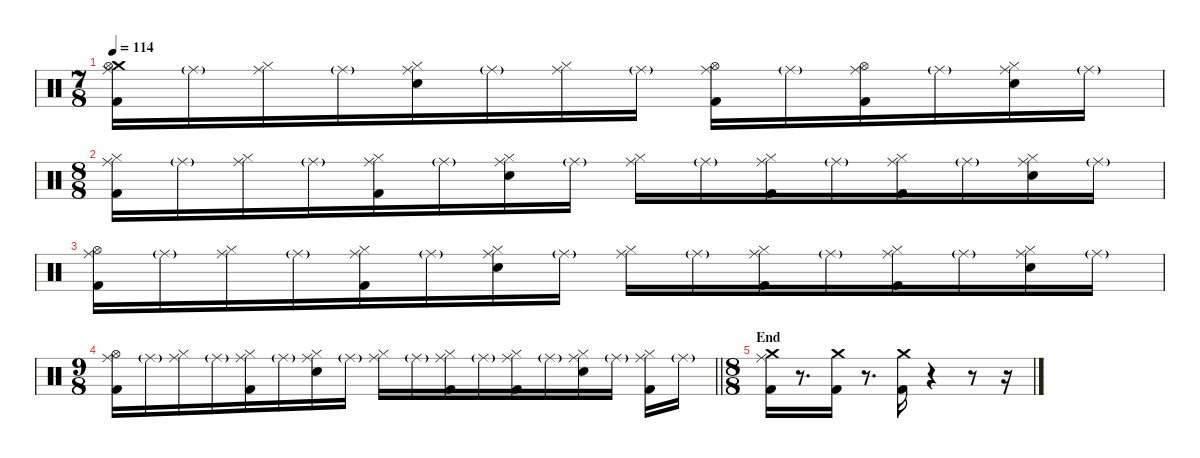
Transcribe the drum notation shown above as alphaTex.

\defaultSystemsLayout 4
\hideDynamics
\bracketExtendMode nobrackets
\singleTrackTrackNamePolicy hidden
\multiTrackTrackNamePolicy hidden
\firstSystemTrackNameMode fullname
\firstSystemTrackNameOrientation horizontal
\otherSystemsTrackNameOrientation horizontal
\track ("Drums" "drm.") {instrument percussion}
\staff {score}
\articulation defaults
\ts (7 8)
\beaming (8 4 4 4 4)
\tempo 114
\clef neutral
\ks c
("Crash medium (hit)" "Ride (middle)" "Hi-Hat (open)" "Kick (hit) 2").16{dy f beam Down} "Ride (middle)"{g}.16{dy mf beam Down} ("Ride (middle)" "Hi-Hat (closed)").16{dy f beam Down} "Ride (middle)"{g}.16{dy mf beam Down} ("Ride (middle)" "Hi-Hat (closed)" "Snare (hit) 2").16{dy f beam Down} "Ride (middle)"{g}.16{dy mf beam Down} ("Ride (middle)" "Hi-Hat (closed)").16{dy f beam Down} "Ride (middle)"{g}.16{dy mf beam Down} ("Ride (middle)" "Hi-Hat (open)" "Kick (hit) 2").16{dy f beam Down} "Ride (middle)"{g}.16{dy mf beam Down} ("Ride (middle)" "Hi-Hat (open)" "Kick (hit) 2").16{dy f beam Down} "Ride (middle)"{g}.16{dy mf beam Down} ("Ride (middle)" "Hi-Hat (closed)" "Snare (hit) 2").16{dy f beam Down} "Ride (middle)"{g}.16{dy mf beam Down} |
\ts (8 8)
\beaming (8 4 4 4 4)
("Ride (middle)" "Hi-Hat (closed)" "Kick (hit) 2").16{dy f beam Down} "Ride (middle)"{g}.16{dy mf beam Down} ("Ride (middle)" "Hi-Hat (closed)").16{dy f beam Down} "Ride (middle)"{g}.16{dy mf beam Down} ("Ride (middle)" "Hi-Hat (closed)" "Kick (hit) 2").16{dy f beam Down} "Ride (middle)"{g}.16{dy mf beam Down} ("Ride (middle)" "Hi-Hat (closed)" "Snare (hit) 2").16{dy f beam Down} "Ride (middle)"{g}.16{dy mf beam Down} ("Ride (middle)" "Hi-Hat (closed)").16{dy f beam Down} "Ride (middle)"{g}.16{dy mf beam Down} ("Ride (middle)" "Hi-Hat (closed)" "Kick (hit) 2").16{dy f beam Down} "Ride (middle)"{g}.16{dy mf beam Down} ("Ride (middle)" "Hi-Hat (closed)" "Kick (hit) 2").16{dy f beam Down} "Ride (middle)"{g}.16{dy mf beam Down} ("Ride (middle)" "Hi-Hat (closed)" "Snare (hit) 2").16{dy f beam Down} "Ride (middle)"{g}.16{dy mf beam Down} |
("Ride (middle)" "Hi-Hat (open)" "Kick (hit) 2").16{dy f beam Down} "Ride (middle)"{g}.16{dy mf beam Down} ("Ride (middle)" "Hi-Hat (closed)").16{dy f beam Down} "Ride (middle)"{g}.16{dy mf beam Down} ("Ride (middle)" "Hi-Hat (closed)" "Kick (hit) 2").16{dy f beam Down} "Ride (middle)"{g}.16{dy mf beam Down} ("Ride (middle)" "Hi-Hat (closed)" "Snare (hit) 2").16{dy f beam Down} "Ride (middle)"{g}.16{dy mf beam Down} ("Ride (middle)" "Hi-Hat (closed)").16{dy f beam Down} "Ride (middle)"{g}.16{dy mf beam Down} ("Ride (middle)" "Hi-Hat (closed)" "Kick (hit) 2").16{dy f beam Down} "Ride (middle)"{g}.16{dy mf beam Down} ("Ride (middle)" "Hi-Hat (closed)" "Kick (hit) 2").16{dy f beam Down} "Ride (middle)"{g}.16{dy mf beam Down} ("Ride (middle)" "Hi-Hat (closed)" "Snare (hit) 2").16{dy f beam Down} "Ride (middle)"{g}.16{dy mf beam Down} |
\ts (9 8)
\beaming (8 4 4 4 4)
\barLineRight lightlight
("Ride (middle)" "Hi-Hat (open)" "Kick (hit) 2").16{dy f beam Down} "Ride (middle)"{g}.16{dy mf beam Down} ("Ride (middle)" "Hi-Hat (closed)").16{dy f beam Down} "Ride (middle)"{g}.16{dy mf beam Down} ("Ride (middle)" "Hi-Hat (closed)" "Kick (hit) 2").16{dy f beam Down} "Ride (middle)"{g}.16{dy mf beam Down} ("Ride (middle)" "Hi-Hat (closed)" "Snare (hit) 2").16{dy f beam Down} "Ride (middle)"{g}.16{dy mf beam Down} ("Ride (middle)" "Hi-Hat (closed)").16{dy f beam Down} "Ride (middle)"{g}.16{dy mf beam Down} ("Ride (middle)" "Hi-Hat (closed)" "Kick (hit) 2").16{dy f beam Down} "Ride (middle)"{g}.16{dy mf beam Down} ("Ride (middle)" "Hi-Hat (closed)" "Kick (hit) 2").16{dy f beam Down} "Ride (middle)"{g}.16{dy mf beam Down} ("Ride (middle)" "Hi-Hat (closed)" "Snare (hit) 2").16{dy f beam Down} "Ride (middle)"{g}.16{dy mf beam Down} ("Ride (middle)" "Hi-Hat (closed)" "Kick (hit) 2").16{dy f beam Down} "Ride (middle)"{g}.16{dy mf beam Down} |
\ts (8 8)
\beaming (8 4 4 4 4)
\section ("" "End")
("Crash medium (hit)" "Ride (middle)" "Kick (hit) 2").16{dy f beam Down} r.8{d beam Down} ("Crash medium (hit)" "Kick (hit) 2").16{beam Down} r.8{d beam Down} ("Crash medium (hit)" "Kick (hit) 2").16{beam Down} r.4{beam Down} r.8{beam Down} r.16{beam Down}
